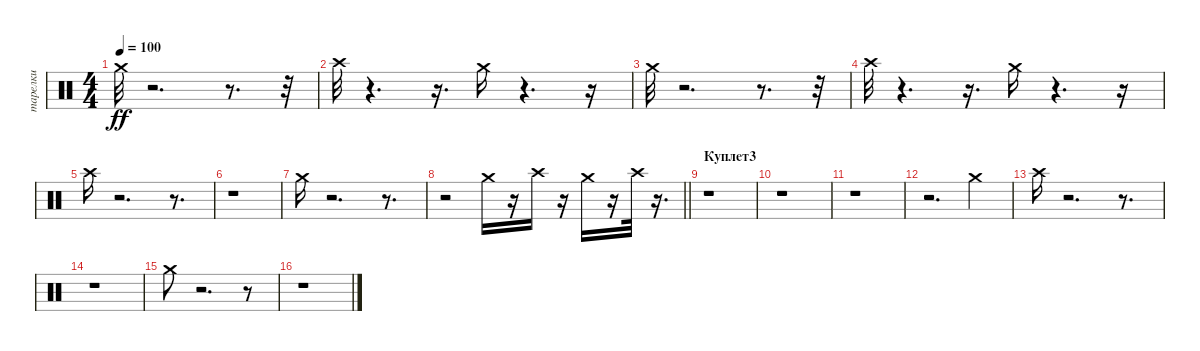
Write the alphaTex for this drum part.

\track ("тарелки" "тарелки") {instrument percussion}
\staff {score}
\articulation defaults
\ts (4 4)
\tempo 100
\clef neutral
\ks c "Crash medium (hit)".32{dy ff}
r.2{d} r.8{d} r.32 |
"Crash high (hit)".32 r.4{d} r.16{d} "Crash medium (hit)".16 r.4{d} r.16 |
"Crash medium (hit)".32 r.2{d} r.8{d} r.32 |
"Crash high (hit)".32 r.4{d} r.16{d} "Crash medium (hit)".16 r.4{d} r.16 |
"Crash high (hit)".16 r.2{d} r.8{d} |
r.1 |
"Crash medium (hit)".16 r.2{d} r.8{d} |
\barLineRight lightlight
r.2 "Crash medium (hit)".16 r.16 "Crash high (hit)".16 r.16 "Crash medium (hit)".16 r.16 "Crash high (hit)".32 r.16{d} |
\section ("" "Куплет3")
r.1 |
r.1 |
r.1 |
r.2{d} "Crash medium (hit)".4 |
"Crash high (hit)".16 r.2{d} r.8{d} |
r.1 |
"Crash medium (hit)".8 r.2{d} r.8 |
r.1
